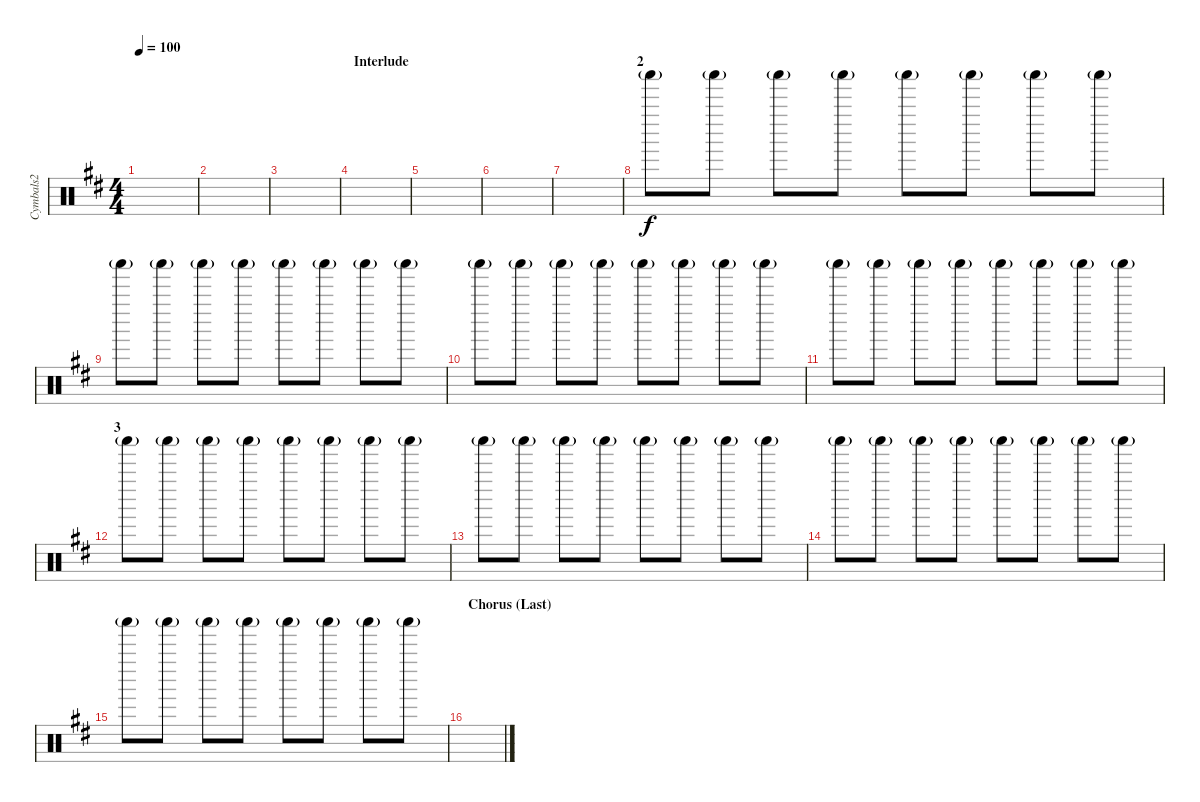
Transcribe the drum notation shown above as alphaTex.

\track ("Cymbals2" "Cymbals2") {instrument percussion}
\staff {score}
\articulation defaults
\ts (4 4)
\tempo 100
\clef neutral
\ks d
|
|
|
\section ("" "Interlude")
|
|
|
|
\section ("" "2")
"Shaker (hit)"{g}.8 "Shaker (hit)"{g}.8 "Shaker (hit)"{g}.8 "Shaker (hit)"{g}.8 "Shaker (hit)"{g}.8 "Shaker (hit)"{g}.8 "Shaker (hit)"{g}.8 "Shaker (hit)"{g}.8 |
"Shaker (hit)"{g}.8 "Shaker (hit)"{g}.8 "Shaker (hit)"{g}.8 "Shaker (hit)"{g}.8 "Shaker (hit)"{g}.8 "Shaker (hit)"{g}.8 "Shaker (hit)"{g}.8 "Shaker (hit)"{g}.8 |
"Shaker (hit)"{g}.8 "Shaker (hit)"{g}.8 "Shaker (hit)"{g}.8 "Shaker (hit)"{g}.8 "Shaker (hit)"{g}.8 "Shaker (hit)"{g}.8 "Shaker (hit)"{g}.8 "Shaker (hit)"{g}.8 |
"Shaker (hit)"{g}.8 "Shaker (hit)"{g}.8 "Shaker (hit)"{g}.8 "Shaker (hit)"{g}.8 "Shaker (hit)"{g}.8 "Shaker (hit)"{g}.8 "Shaker (hit)"{g}.8 "Shaker (hit)"{g}.8 |
\section ("" "3")
"Shaker (hit)"{g}.8 "Shaker (hit)"{g}.8 "Shaker (hit)"{g}.8 "Shaker (hit)"{g}.8 "Shaker (hit)"{g}.8 "Shaker (hit)"{g}.8 "Shaker (hit)"{g}.8 "Shaker (hit)"{g}.8 |
"Shaker (hit)"{g}.8 "Shaker (hit)"{g}.8 "Shaker (hit)"{g}.8 "Shaker (hit)"{g}.8 "Shaker (hit)"{g}.8 "Shaker (hit)"{g}.8 "Shaker (hit)"{g}.8 "Shaker (hit)"{g}.8 |
"Shaker (hit)"{g}.8 "Shaker (hit)"{g}.8 "Shaker (hit)"{g}.8 "Shaker (hit)"{g}.8 "Shaker (hit)"{g}.8 "Shaker (hit)"{g}.8 "Shaker (hit)"{g}.8 "Shaker (hit)"{g}.8 |
"Shaker (hit)"{g}.8 "Shaker (hit)"{g}.8 "Shaker (hit)"{g}.8 "Shaker (hit)"{g}.8 "Shaker (hit)"{g}.8 "Shaker (hit)"{g}.8 "Shaker (hit)"{g}.8 "Shaker (hit)"{g}.8 |
\section ("" "Chorus (Last)")
